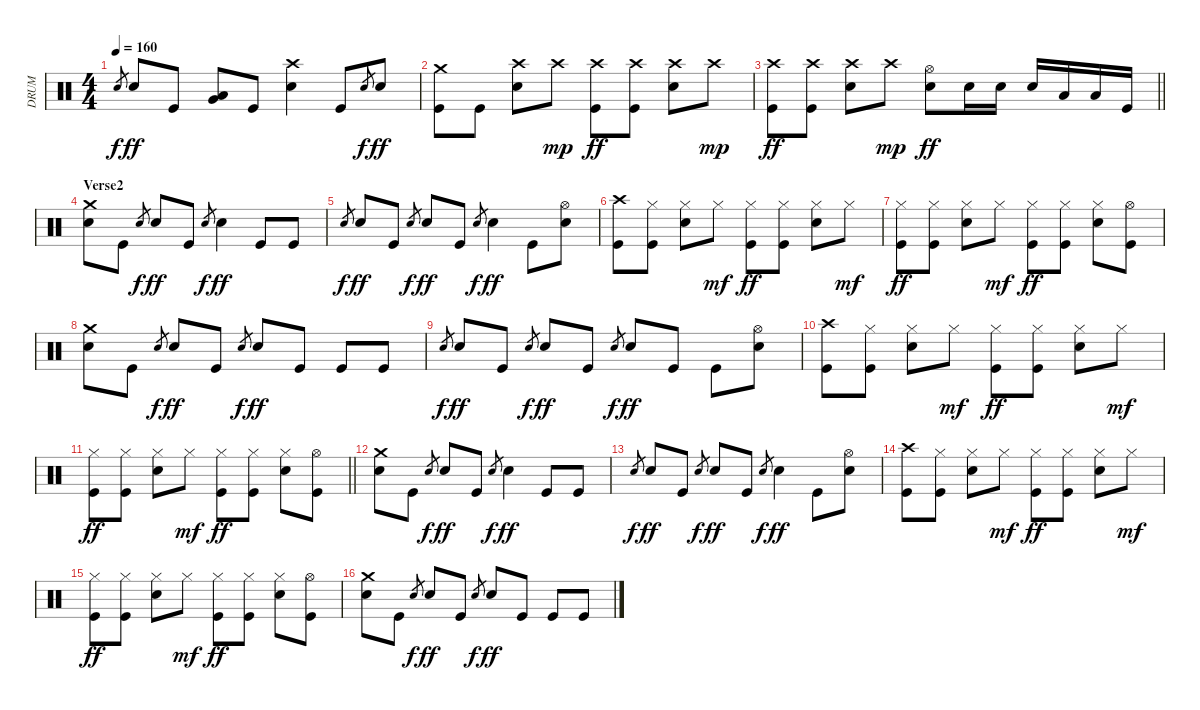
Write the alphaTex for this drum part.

\track ("DRUM" "DRUM") {instrument percussion}
\staff {score}
\articulation defaults
\ts (4 4)
\tempo 160
\clef neutral
\ks c "Electric Snare (hit)".8{gr dy f} "Electric Snare (hit)".8{dy ff} "Kick (hit)".8
("Very Low Tom (hit)" "Low Floor Tom (hit)").8 "Kick (hit)".8 ("Crash high (hit)" "Electric Snare (hit)").4 "Kick (hit)".8 "Electric Snare (hit)".8{gr dy f} "Electric Snare (hit)".8{dy ff} |
("Crash medium (hit)" "Kick (hit)").8 "Kick (hit)".8 ("Crash high (hit)" "Electric Snare (hit)").8 "Crash high (hit)".8{dy mp} ("Crash high (hit)" "Kick (hit)").8{dy ff} ("Crash high (hit)" "Kick (hit)").8 ("Crash high (hit)" "Electric Snare (hit)").8 "Crash high (hit)".8{dy mp} |
\barLineRight lightlight
("Crash high (hit)" "Kick (hit)").8{dy ff} ("Crash high (hit)" "Kick (hit)").8 ("Crash high (hit)" "Electric Snare (hit)").8 "Crash high (hit)".8{dy mp} ("Hi-Hat (open)" "Electric Snare (hit)").8{dy ff} "Electric Snare (hit)".16 "Electric Snare (hit)".16 "Electric Snare (hit)".16 "Low Tom (hit)".16 "Low Tom (hit)".16 "Kick (hit)".16 |
\section ("" "Verse2")
("Crash medium (hit)" "Electric Snare (hit)").8 "Kick (hit)".8 "Electric Snare (hit)".8{gr dy f} "Electric Snare (hit)".8{dy ff} "Kick (hit)".8 "Electric Snare (hit)".8{gr dy f} "Electric Snare (hit)".4{dy ff} "Kick (hit)".8 "Kick (hit)".8 |
"Electric Snare (hit)".8{gr dy f} "Electric Snare (hit)".8{dy ff} "Kick (hit)".8 "Electric Snare (hit)".8{gr dy f} "Electric Snare (hit)".8{dy ff} "Kick (hit)".8 "Electric Snare (hit)".8{gr dy f} "Electric Snare (hit)".4{dy ff} "Kick (hit)".8 ("Hi-Hat (open)" "Electric Snare (hit)").8 |
("Crash high (hit)" "Kick (hit)").8 ("Hi-Hat (closed)" "Kick (hit)").8 ("Hi-Hat (closed)" "Electric Snare (hit)").8 "Hi-Hat (closed)".8{dy mf} ("Hi-Hat (closed)" "Kick (hit)").8{dy ff} ("Hi-Hat (closed)" "Kick (hit)").8 ("Hi-Hat (closed)" "Electric Snare (hit)").8 "Hi-Hat (closed)".8{dy mf} |
("Hi-Hat (closed)" "Kick (hit)").8{dy ff} ("Hi-Hat (closed)" "Kick (hit)").8 ("Hi-Hat (closed)" "Electric Snare (hit)").8 "Hi-Hat (closed)".8{dy mf} ("Hi-Hat (closed)" "Kick (hit)").8{dy ff} ("Hi-Hat (closed)" "Kick (hit)").8 ("Hi-Hat (closed)" "Electric Snare (hit)").8 ("Hi-Hat (open)" "Kick (hit)").8 |
("Crash medium (hit)" "Electric Snare (hit)").8 "Kick (hit)".8 "Electric Snare (hit)".8{gr dy f} "Electric Snare (hit)".8{dy ff} "Kick (hit)".8 "Electric Snare (hit)".8{gr dy f} "Electric Snare (hit)".8{dy ff} "Kick (hit)".8 "Kick (hit)".8 "Kick (hit)".8 |
"Electric Snare (hit)".8{gr dy f} "Electric Snare (hit)".8{dy ff} "Kick (hit)".8 "Electric Snare (hit)".8{gr dy f} "Electric Snare (hit)".8{dy ff} "Kick (hit)".8 "Electric Snare (hit)".8{gr dy f} "Electric Snare (hit)".8{dy ff} "Kick (hit)".8 "Kick (hit)".8 ("Hi-Hat (open)" "Electric Snare (hit)").8 |
("Crash high (hit)" "Kick (hit)").8 ("Hi-Hat (closed)" "Kick (hit)").8 ("Hi-Hat (closed)" "Electric Snare (hit)").8 "Hi-Hat (closed)".8{dy mf} ("Hi-Hat (closed)" "Kick (hit)").8{dy ff} ("Hi-Hat (closed)" "Kick (hit)").8 ("Hi-Hat (closed)" "Electric Snare (hit)").8 "Hi-Hat (closed)".8{dy mf} |
\barLineRight lightlight
("Hi-Hat (closed)" "Kick (hit)").8{dy ff} ("Hi-Hat (closed)" "Kick (hit)").8 ("Hi-Hat (closed)" "Electric Snare (hit)").8 "Hi-Hat (closed)".8{dy mf} ("Hi-Hat (closed)" "Kick (hit)").8{dy ff} ("Hi-Hat (closed)" "Kick (hit)").8 ("Hi-Hat (closed)" "Electric Snare (hit)").8 ("Hi-Hat (open)" "Kick (hit)").8 |
("Crash medium (hit)" "Electric Snare (hit)").8 "Kick (hit)".8 "Electric Snare (hit)".8{gr dy f} "Electric Snare (hit)".8{dy ff} "Kick (hit)".8 "Electric Snare (hit)".8{gr dy f} "Electric Snare (hit)".4{dy ff} "Kick (hit)".8 "Kick (hit)".8 |
"Electric Snare (hit)".8{gr dy f} "Electric Snare (hit)".8{dy ff} "Kick (hit)".8 "Electric Snare (hit)".8{gr dy f} "Electric Snare (hit)".8{dy ff} "Kick (hit)".8 "Electric Snare (hit)".8{gr dy f} "Electric Snare (hit)".4{dy ff} "Kick (hit)".8 ("Hi-Hat (open)" "Electric Snare (hit)").8 |
("Crash high (hit)" "Kick (hit)").8 ("Hi-Hat (closed)" "Kick (hit)").8 ("Hi-Hat (closed)" "Electric Snare (hit)").8 "Hi-Hat (closed)".8{dy mf} ("Hi-Hat (closed)" "Kick (hit)").8{dy ff} ("Hi-Hat (closed)" "Kick (hit)").8 ("Hi-Hat (closed)" "Electric Snare (hit)").8 "Hi-Hat (closed)".8{dy mf} |
("Hi-Hat (closed)" "Kick (hit)").8{dy ff} ("Hi-Hat (closed)" "Kick (hit)").8 ("Hi-Hat (closed)" "Electric Snare (hit)").8 "Hi-Hat (closed)".8{dy mf} ("Hi-Hat (closed)" "Kick (hit)").8{dy ff} ("Hi-Hat (closed)" "Kick (hit)").8 ("Hi-Hat (closed)" "Electric Snare (hit)").8 ("Hi-Hat (open)" "Kick (hit)").8 |
("Crash medium (hit)" "Electric Snare (hit)").8 "Kick (hit)".8 "Electric Snare (hit)".8{gr dy f} "Electric Snare (hit)".8{dy ff} "Kick (hit)".8 "Electric Snare (hit)".8{gr dy f} "Electric Snare (hit)".8{dy ff} "Kick (hit)".8 "Kick (hit)".8 "Kick (hit)".8
